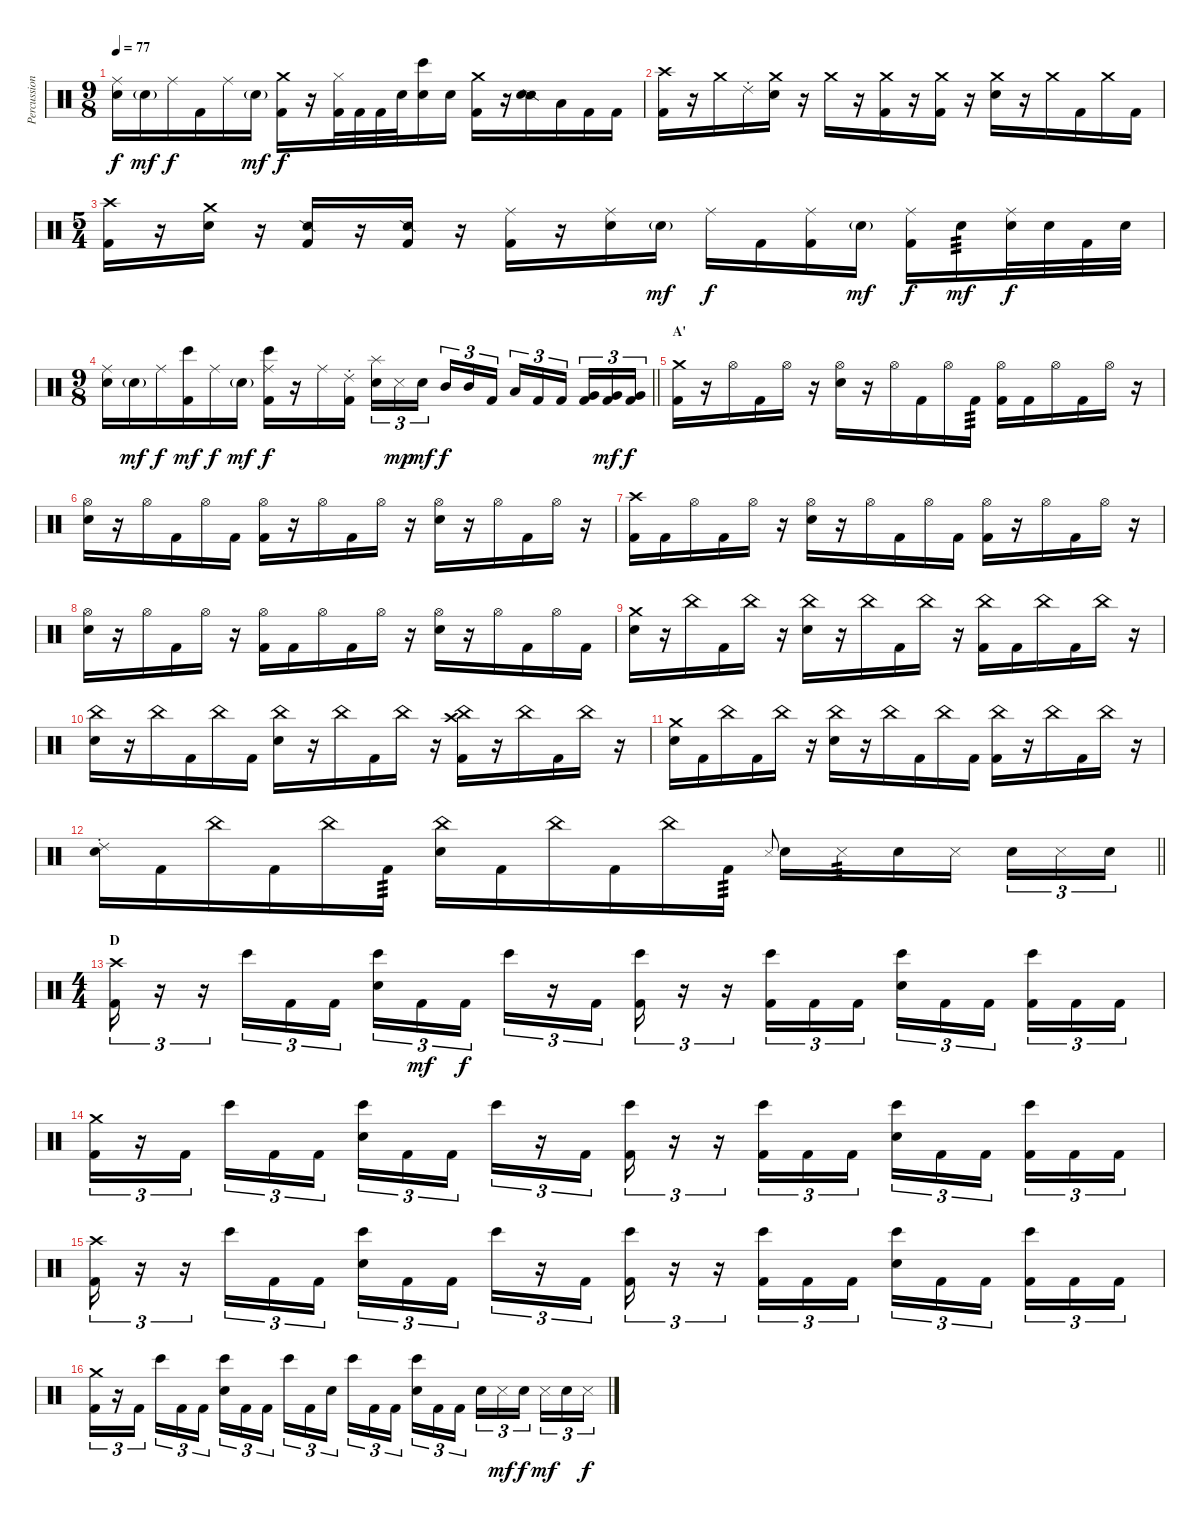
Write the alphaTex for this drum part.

\track ("Percussion" "Percussion") {instrument percussion}
\staff {score}
\articulation defaults
\ts (9 8)
\tempo 77
\clef neutral
\ks c
("Ride (middle)" "Snare (hit) 2").16{dy f} "Snare (hit) 2"{g}.16{dy mf} "Ride (middle)".16{dy f} "Kick (hit) 2".16 "Ride (middle)".16 "Snare (hit) 2"{g}.16{dy mf} ("Crash medium (hit)" "Kick (hit) 2").16{dy f} r.16 ("Hi-Hat (closed)" "Kick (hit) 2").32 "Kick (hit) 2".32 "Kick (hit) 2".32 "Snare (hit) 2".32 ("Bongo High (hit)" "Snare (hit) 2").16 "Snare (hit) 2".16 ("Crash medium (hit)" "Kick (hit) 2").16 r.16 ("Snare (side stick) 2" "Snare (hit) 2").16 "Low Tom (hit)".16 "Kick (hit) 2".16 "Kick (hit) 2".16 |
("Crash high (hit)" "Kick (hit) 2").16 r.16 "Crash medium (hit)".16 "Ride (choke) 2".16 ("Crash medium (hit)" "Snare (hit) 2").16 r.16 "Crash medium (hit)".16 r.16 ("Crash medium (hit)" "Kick (hit) 2").16 r.16 ("Crash medium (hit)" "Kick (hit) 2").16 r.16 ("Crash medium (hit)" "Snare (hit) 2").16 r.16 "Crash medium (hit)".16 "Kick (hit) 2".16 "Crash medium (hit)".16 "Kick (hit) 2".16 |
\ts (5 4)
("Crash high (hit)" "Kick (hit) 2").16 r.16 ("Crash medium (hit)" "Snare (hit) 2").16 r.16 ("Snare (side stick) 2" "Kick (hit) 2").16 r.16 ("Snare (side stick) 2" "Kick (hit) 2").16 r.16 ("Ride (middle)" "Kick (hit) 2").16 r.16 ("Ride (middle)" "Snare (hit) 2").16 "Snare (hit) 2"{g}.16{dy mf} "Ride (middle)".16{dy f} "Kick (hit) 2".16 ("Ride (middle)" "Kick (hit) 2").16 "Snare (hit) 2"{g}.16{dy mf} ("Ride (middle)" "Kick (hit) 2").16{dy f} "Snare (hit) 2".16{tp 3 dy mf} ("Ride (middle)" "Snare (hit) 2").32{dy f} "Snare (hit) 2".32 "Kick (hit) 2".32 "Snare (hit) 2".32 |
\ts (9 8)
\barLineRight lightlight
("Ride (middle)" "Snare (hit) 2").16 "Snare (hit) 2"{g}.16{dy mf} "Ride (middle)".16{dy f} ("Bongo High (hit)" "Kick (hit) 2").16{dy mf} "Ride (middle)".16{dy f} "Snare (hit) 2"{g}.16{dy mf} ("Ride (middle)" "Bongo High (hit)" "Kick (hit) 2").16{dy f} r.16 "Ride (middle)".16 ("Ride (choke) 2" "Kick (hit) 2").16{beam splitsecondary} ("Splash (hit)" "Snare (hit) 2").16{tu (3 2)} "Metronome (hit)".16{tu (3 2) dy mp} "Snare (hit) 2".16{tu (3 2) dy mf} "Mid Tom (hit)".16{tu (3 2) dy f} "Mid Tom (hit)".16{tu (3 2)} "Kick (hit) 2".16{tu (3 2) beam splitsecondary} "Low Tom (hit)".16{tu (3 2)} "Kick (hit) 2".16{tu (3 2)} "Kick (hit) 2".16{tu (3 2) beam splitsecondary} ("Very Low Tom (hit)" "Kick (hit) 2").16{tu (3 2)} ("Very Low Tom (hit)" "Kick (hit) 2").16{tu (3 2) dy mf} ("Very Low Tom (hit)" "Kick (hit) 2").16{tu (3 2) dy f} |
\section ("" "A'")
("Crash medium (hit)" "Kick (hit) 2").16 r.16 "Hi-Hat (open)".16 "Kick (hit) 2".16 "Hi-Hat (open)".16 r.16 ("Hi-Hat (open)" "Snare (hit) 2").16 r.16 "Hi-Hat (open)".16 "Kick (hit) 2".16 "Hi-Hat (open)".16 "Kick (hit) 2".16{tp 3} ("Hi-Hat (open)" "Kick (hit) 2").16 "Kick (hit) 2".16 "Hi-Hat (open)".16 "Kick (hit) 2".16 "Hi-Hat (open)".16 r.16 |
("Hi-Hat (open)" "Snare (hit) 2").16 r.16 "Hi-Hat (open)".16 "Kick (hit) 2".16 "Hi-Hat (open)".16 "Kick (hit) 2".16 ("Hi-Hat (open)" "Kick (hit) 2").16 r.16 "Hi-Hat (open)".16 "Kick (hit) 2".16 "Hi-Hat (open)".16 r.16 ("Hi-Hat (open)" "Snare (hit) 2").16 r.16 "Hi-Hat (open)".16 "Kick (hit) 2".16 "Hi-Hat (open)".16 r.16 |
("Crash high (hit)" "Kick (hit) 2").16 "Kick (hit) 2".16 "Hi-Hat (open)".16 "Kick (hit) 2".16 "Hi-Hat (open)".16 r.16 ("Hi-Hat (open)" "Snare (hit) 2").16 r.16 "Hi-Hat (open)".16 "Kick (hit) 2".16 "Hi-Hat (open)".16 "Kick (hit) 2".16 ("Hi-Hat (open)" "Kick (hit) 2").16 r.16 "Hi-Hat (open)".16 "Kick (hit) 2".16 "Hi-Hat (open)".16 r.16 |
("Hi-Hat (open)" "Snare (hit) 2").16 r.16 "Hi-Hat (open)".16 "Kick (hit) 2".16 "Hi-Hat (open)".16 r.16 ("Hi-Hat (open)" "Kick (hit) 2").16 "Kick (hit) 2".16 "Hi-Hat (open)".16 "Kick (hit) 2".16 "Hi-Hat (open)".16 r.16 ("Hi-Hat (open)" "Snare (hit) 2").16 r.16 "Hi-Hat (open)".16 "Kick (hit) 2".16 "Hi-Hat (open)".16 "Kick (hit) 2".16 |
("Crash medium (hit)" "Snare (hit) 2").16 r.16 "China (hit)".16 "Kick (hit) 2".16 "China (hit)".16 r.16 ("China (hit)" "Snare (hit) 2").16 r.16 "China (hit)".16 "Kick (hit) 2".16 "China (hit)".16 r.16 ("China (hit)" "Kick (hit) 2").16 "Kick (hit) 2".16 "China (hit)".16 "Kick (hit) 2".16 "China (hit)".16 r.16 |
("China (hit)" "Snare (hit) 2").16 r.16 "China (hit)".16 "Kick (hit) 2".16 "China (hit)".16 "Kick (hit) 2".16 ("China (hit)" "Snare (hit) 2").16 r.16 "China (hit)".16 "Kick (hit) 2".16 "China (hit)".16 r.16 ("China (hit)" "Crash high (hit)" "Kick (hit) 2").16 r.16 "China (hit)".16 "Kick (hit) 2".16 "China (hit)".16 r.16 |
("Crash medium (hit)" "Snare (hit) 2").16 "Kick (hit) 2".16 "China (hit)".16 "Kick (hit) 2".16 "China (hit)".16 r.16 ("China (hit)" "Snare (hit) 2").16 r.16 "China (hit)".16 "Kick (hit) 2".16 "China (hit)".16 "Kick (hit) 2".16 ("China (hit)" "Kick (hit) 2").16 r.16 "China (hit)".16 "Kick (hit) 2".16 "China (hit)".16 r.16 |
\barLineRight lightlight
("Ride (choke) 2" "Snare (hit) 2").16 "Kick (hit) 2".16 "China (hit)".16 "Kick (hit) 2".16 "China (hit)".16 "Kick (hit) 2".16{tp 3} ("China (hit)" "Snare (hit) 2").16 "Kick (hit) 2".16 "China (hit)".16 "Kick (hit) 2".16 "China (hit)".16 "Kick (hit) 2".16{tp 3} "Metronome (hit)".8{gr onbeat} "Snare (hit) 2".16 "Metronome (hit)".16{tp 3} "Snare (hit) 2".16 "Metronome (hit)".16{beam splitsecondary} "Snare (hit) 2".16{tu (3 2)} "Metronome (hit)".16{tu (3 2)} "Snare (hit) 2".16{tu (3 2)} |
\ts (4 4)
\section ("" "D")
("Crash high (hit)" "Kick (hit) 2").16{tu (3 2)} r.16{tu (3 2)} r.16{tu (3 2)} "Bongo High (hit)".16{tu (3 2)} "Kick (hit) 2".16{tu (3 2)} "Kick (hit) 2".16{tu (3 2)} ("Bongo High (hit)" "Snare (hit) 2").16{tu (3 2)} "Kick (hit) 2".16{tu (3 2) dy mf} "Kick (hit) 2".16{tu (3 2) dy f beam splitsecondary} "Bongo High (hit)".16{tu (3 2)} r.16{tu (3 2)} "Kick (hit) 2".16{tu (3 2)} ("Bongo High (hit)" "Kick (hit) 2").16{tu (3 2)} r.16{tu (3 2)} r.16{tu (3 2)} ("Bongo High (hit)" "Kick (hit) 2").16{tu (3 2)} "Kick (hit) 2".16{tu (3 2)} "Kick (hit) 2".16{tu (3 2)} ("Bongo High (hit)" "Snare (hit) 2").16{tu (3 2)} "Kick (hit) 2".16{tu (3 2)} "Kick (hit) 2".16{tu (3 2) beam splitsecondary} ("Bongo High (hit)" "Kick (hit) 2").16{tu (3 2)} "Kick (hit) 2".16{tu (3 2)} "Kick (hit) 2".16{tu (3 2)} |
("Crash medium (hit)" "Kick (hit) 2").16{tu (3 2)} r.16{tu (3 2)} "Kick (hit) 2".16{tu (3 2) beam splitsecondary} "Bongo High (hit)".16{tu (3 2)} "Kick (hit) 2".16{tu (3 2)} "Kick (hit) 2".16{tu (3 2)} ("Bongo High (hit)" "Snare (hit) 2").16{tu (3 2)} "Kick (hit) 2".16{tu (3 2)} "Kick (hit) 2".16{tu (3 2) beam splitsecondary} "Bongo High (hit)".16{tu (3 2)} r.16{tu (3 2)} "Kick (hit) 2".16{tu (3 2)} ("Bongo High (hit)" "Kick (hit) 2").16{tu (3 2)} r.16{tu (3 2)} r.16{tu (3 2)} ("Bongo High (hit)" "Kick (hit) 2").16{tu (3 2)} "Kick (hit) 2".16{tu (3 2)} "Kick (hit) 2".16{tu (3 2)} ("Bongo High (hit)" "Snare (hit) 2").16{tu (3 2)} "Kick (hit) 2".16{tu (3 2)} "Kick (hit) 2".16{tu (3 2) beam splitsecondary} ("Bongo High (hit)" "Kick (hit) 2").16{tu (3 2)} "Kick (hit) 2".16{tu (3 2)} "Kick (hit) 2".16{tu (3 2)} |
("Crash high (hit)" "Kick (hit) 2").16{tu (3 2)} r.16{tu (3 2)} r.16{tu (3 2)} "Bongo High (hit)".16{tu (3 2)} "Kick (hit) 2".16{tu (3 2)} "Kick (hit) 2".16{tu (3 2)} ("Bongo High (hit)" "Snare (hit) 2").16{tu (3 2)} "Kick (hit) 2".16{tu (3 2)} "Kick (hit) 2".16{tu (3 2) beam splitsecondary} "Bongo High (hit)".16{tu (3 2)} r.16{tu (3 2)} "Kick (hit) 2".16{tu (3 2)} ("Bongo High (hit)" "Kick (hit) 2").16{tu (3 2)} r.16{tu (3 2)} r.16{tu (3 2)} ("Bongo High (hit)" "Kick (hit) 2").16{tu (3 2)} "Kick (hit) 2".16{tu (3 2)} "Kick (hit) 2".16{tu (3 2)} ("Bongo High (hit)" "Snare (hit) 2").16{tu (3 2)} "Kick (hit) 2".16{tu (3 2)} "Kick (hit) 2".16{tu (3 2) beam splitsecondary} ("Bongo High (hit)" "Kick (hit) 2").16{tu (3 2)} "Kick (hit) 2".16{tu (3 2)} "Kick (hit) 2".16{tu (3 2)} |
("Crash medium (hit)" "Kick (hit) 2").16{tu (3 2)} r.16{tu (3 2)} "Kick (hit) 2".16{tu (3 2) beam splitsecondary} "Bongo High (hit)".16{tu (3 2)} "Kick (hit) 2".16{tu (3 2)} "Kick (hit) 2".16{tu (3 2)} ("Bongo High (hit)" "Snare (hit) 2").16{tu (3 2)} "Kick (hit) 2".16{tu (3 2)} "Kick (hit) 2".16{tu (3 2) beam splitsecondary} "Bongo High (hit)".16{tu (3 2)} "Kick (hit) 2".16{tu (3 2)} "Snare (hit) 2".16{tu (3 2)} "Bongo High (hit)".16{tu (3 2)} "Kick (hit) 2".16{tu (3 2)} "Kick (hit) 2".16{tu (3 2) beam splitsecondary} ("Bongo High (hit)" "Snare (hit) 2").16{tu (3 2)} "Kick (hit) 2".16{tu (3 2)} "Kick (hit) 2".16{tu (3 2)} "Snare (hit) 2".16{tu (3 2)} "Metronome (hit)".16{tu (3 2) dy mf} "Snare (hit) 2".16{tu (3 2) dy f beam splitsecondary} "Metronome (hit)".16{tu (3 2) dy mf} "Snare (hit) 2".16{tu (3 2)} "Metronome (hit)".16{tu (3 2) dy f}
